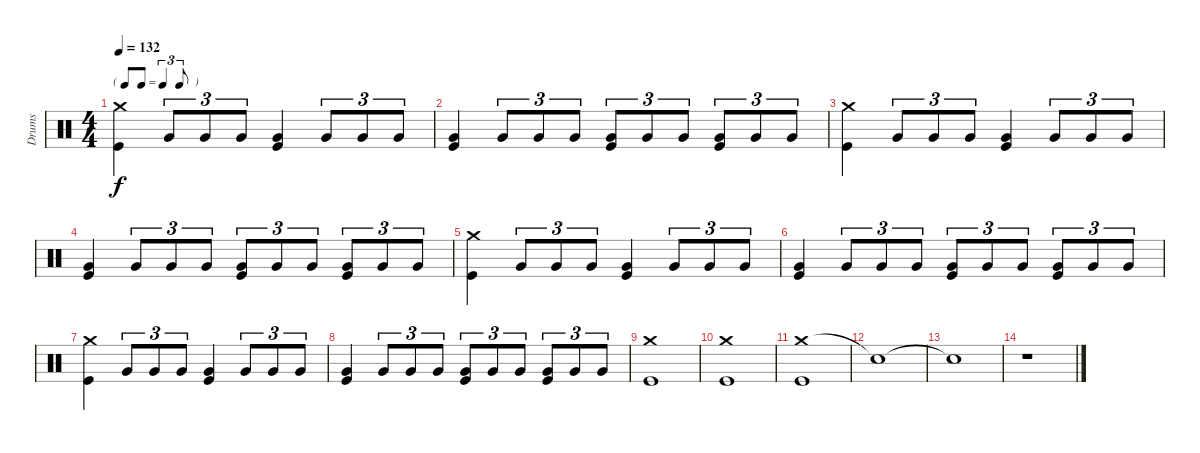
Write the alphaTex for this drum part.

\track ("Drums" "Drums") {instrument percussion}
\staff {score}
\articulation defaults
\ts (4 4)
\tf triplet8th
\tempo 132
\clef neutral
\ks c
("Crash medium (hit)" "Kick (hit)").4{dy f} "Very Low Tom (hit)".8{tu (3 2)} "Very Low Tom (hit)".8{tu (3 2)} "Very Low Tom (hit)".8{tu (3 2)} ("Very Low Tom (hit)" "Kick (hit)").4 "Very Low Tom (hit)".8{tu (3 2)} "Very Low Tom (hit)".8{tu (3 2)} "Very Low Tom (hit)".8{tu (3 2)} |
("Very Low Tom (hit)" "Kick (hit)").4 "Very Low Tom (hit)".8{tu (3 2)} "Very Low Tom (hit)".8{tu (3 2)} "Very Low Tom (hit)".8{tu (3 2)} ("Very Low Tom (hit)" "Kick (hit)").8{tu (3 2)} "Very Low Tom (hit)".8{tu (3 2)} "Very Low Tom (hit)".8{tu (3 2)} ("Very Low Tom (hit)" "Kick (hit)").8{tu (3 2)} "Very Low Tom (hit)".8{tu (3 2)} "Very Low Tom (hit)".8{tu (3 2)} |
("Crash medium (hit)" "Kick (hit)").4 "Very Low Tom (hit)".8{tu (3 2)} "Very Low Tom (hit)".8{tu (3 2)} "Very Low Tom (hit)".8{tu (3 2)} ("Very Low Tom (hit)" "Kick (hit)").4 "Very Low Tom (hit)".8{tu (3 2)} "Very Low Tom (hit)".8{tu (3 2)} "Very Low Tom (hit)".8{tu (3 2)} |
("Very Low Tom (hit)" "Kick (hit)").4 "Very Low Tom (hit)".8{tu (3 2)} "Very Low Tom (hit)".8{tu (3 2)} "Very Low Tom (hit)".8{tu (3 2)} ("Very Low Tom (hit)" "Kick (hit)").8{tu (3 2)} "Very Low Tom (hit)".8{tu (3 2)} "Very Low Tom (hit)".8{tu (3 2)} ("Very Low Tom (hit)" "Kick (hit)").8{tu (3 2)} "Very Low Tom (hit)".8{tu (3 2)} "Very Low Tom (hit)".8{tu (3 2)} |
("Crash medium (hit)" "Kick (hit)").4 "Very Low Tom (hit)".8{tu (3 2)} "Very Low Tom (hit)".8{tu (3 2)} "Very Low Tom (hit)".8{tu (3 2)} ("Very Low Tom (hit)" "Kick (hit)").4 "Very Low Tom (hit)".8{tu (3 2)} "Very Low Tom (hit)".8{tu (3 2)} "Very Low Tom (hit)".8{tu (3 2)} |
("Very Low Tom (hit)" "Kick (hit)").4 "Very Low Tom (hit)".8{tu (3 2)} "Very Low Tom (hit)".8{tu (3 2)} "Very Low Tom (hit)".8{tu (3 2)} ("Very Low Tom (hit)" "Kick (hit)").8{tu (3 2)} "Very Low Tom (hit)".8{tu (3 2)} "Very Low Tom (hit)".8{tu (3 2)} ("Very Low Tom (hit)" "Kick (hit)").8{tu (3 2)} "Very Low Tom (hit)".8{tu (3 2)} "Very Low Tom (hit)".8{tu (3 2)} |
("Crash medium (hit)" "Kick (hit)").4 "Very Low Tom (hit)".8{tu (3 2)} "Very Low Tom (hit)".8{tu (3 2)} "Very Low Tom (hit)".8{tu (3 2)} ("Very Low Tom (hit)" "Kick (hit)").4 "Very Low Tom (hit)".8{tu (3 2)} "Very Low Tom (hit)".8{tu (3 2)} "Very Low Tom (hit)".8{tu (3 2)} |
("Very Low Tom (hit)" "Kick (hit)").4 "Very Low Tom (hit)".8{tu (3 2)} "Very Low Tom (hit)".8{tu (3 2)} "Very Low Tom (hit)".8{tu (3 2)} ("Very Low Tom (hit)" "Kick (hit)").8{tu (3 2)} "Very Low Tom (hit)".8{tu (3 2)} "Very Low Tom (hit)".8{tu (3 2)} ("Very Low Tom (hit)" "Kick (hit)").8{tu (3 2)} "Very Low Tom (hit)".8{tu (3 2)} "Very Low Tom (hit)".8{tu (3 2)} |
("Crash medium (hit)" "Kick (hit)").1 |
("Crash medium (hit)" "Kick (hit)").1 |
("Crash medium (hit)" "Kick (hit)").1 |
"Snare (hit)"{t}.1 |
"Snare (hit)"{t}.1 |
r.1
